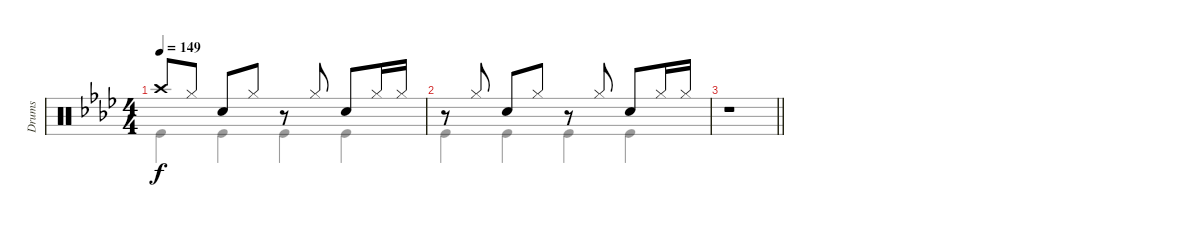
\track ("Drums" "Drums") {instrument percussion}
\staff {score}
\articulation defaults
\voice
\ts (4 4)
\tempo 149
\clef neutral
\ks ab "Crash high (hit)".8{dy f} "Hi-Hat (closed)".8 "Snare (hit) 2".8 "Hi-Hat (closed)".8
r.8 "Hi-Hat (closed)".8 "Snare (hit) 2".8 "Hi-Hat (closed)".16 "Hi-Hat (closed)".16 |
r.8 "Hi-Hat (closed)".8 "Snare (hit) 2".8 "Hi-Hat (closed)".8 r.8 "Hi-Hat (closed)".8 "Snare (hit) 2".8 "Hi-Hat (closed)".16 "Hi-Hat (closed)".16 |
\barLineRight lightlight
r.1
\voice
\clef neutral
\ottava regular
\simile none
\ks ab "Kick (hit)".4{dy f} "Kick (hit)".4 "Kick (hit)".4 "Kick (hit)".4
|
"Kick (hit)".4 "Kick (hit)".4 "Kick (hit)".4 "Kick (hit)".4 |
\barLineRight lightlight
r.1
